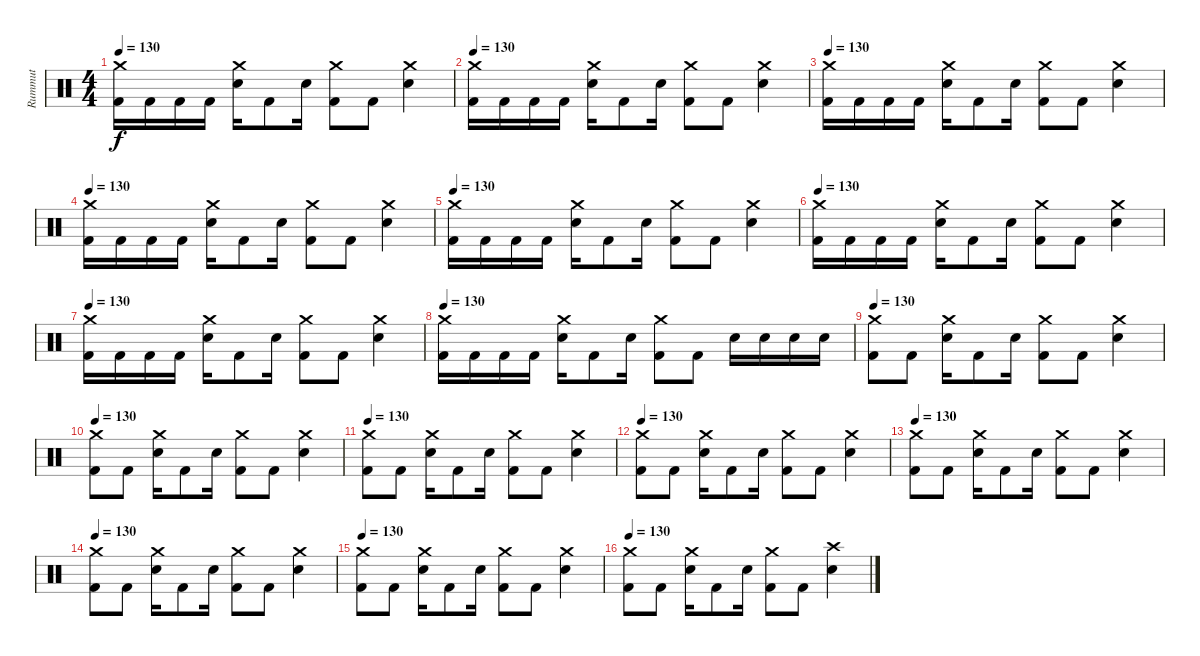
\track ("Rummut" "Rummut") {instrument percussion}
\staff {score}
\articulation defaults
\ts (4 4)
\tempo 130
\clef neutral
\ks c
("Crash medium (hit)" "Kick (hit) 2").16{dy f} "Kick (hit) 2".16 "Kick (hit) 2".16 "Kick (hit) 2".16 ("Crash medium (hit)" "Electric Snare (hit)").16 "Kick (hit) 2".8 "Electric Snare (hit)".16 ("Crash medium (hit)" "Kick (hit) 2").8 "Kick (hit) 2".8 ("Crash medium (hit)" "Electric Snare (hit)").4 |
\tempo 130
("Crash medium (hit)" "Kick (hit) 2").16 "Kick (hit) 2".16 "Kick (hit) 2".16 "Kick (hit) 2".16 ("Crash medium (hit)" "Electric Snare (hit)").16 "Kick (hit) 2".8 "Electric Snare (hit)".16 ("Crash medium (hit)" "Kick (hit) 2").8 "Kick (hit) 2".8 ("Crash medium (hit)" "Electric Snare (hit)").4 |
\tempo 130
("Crash medium (hit)" "Kick (hit) 2").16 "Kick (hit) 2".16 "Kick (hit) 2".16 "Kick (hit) 2".16 ("Crash medium (hit)" "Electric Snare (hit)").16 "Kick (hit) 2".8 "Electric Snare (hit)".16 ("Crash medium (hit)" "Kick (hit) 2").8 "Kick (hit) 2".8 ("Crash medium (hit)" "Electric Snare (hit)").4 |
\tempo 130
("Crash medium (hit)" "Kick (hit) 2").16 "Kick (hit) 2".16 "Kick (hit) 2".16 "Kick (hit) 2".16 ("Crash medium (hit)" "Electric Snare (hit)").16 "Kick (hit) 2".8 "Electric Snare (hit)".16 ("Crash medium (hit)" "Kick (hit) 2").8 "Kick (hit) 2".8 ("Crash medium (hit)" "Electric Snare (hit)").4 |
\tempo 130
("Crash medium (hit)" "Kick (hit) 2").16 "Kick (hit) 2".16 "Kick (hit) 2".16 "Kick (hit) 2".16 ("Crash medium (hit)" "Electric Snare (hit)").16 "Kick (hit) 2".8 "Electric Snare (hit)".16 ("Crash medium (hit)" "Kick (hit) 2").8 "Kick (hit) 2".8 ("Crash medium (hit)" "Electric Snare (hit)").4 |
\tempo 130
("Crash medium (hit)" "Kick (hit) 2").16 "Kick (hit) 2".16 "Kick (hit) 2".16 "Kick (hit) 2".16 ("Crash medium (hit)" "Electric Snare (hit)").16 "Kick (hit) 2".8 "Electric Snare (hit)".16 ("Crash medium (hit)" "Kick (hit) 2").8 "Kick (hit) 2".8 ("Crash medium (hit)" "Electric Snare (hit)").4 |
\tempo 130
("Crash medium (hit)" "Kick (hit) 2").16 "Kick (hit) 2".16 "Kick (hit) 2".16 "Kick (hit) 2".16 ("Crash medium (hit)" "Electric Snare (hit)").16 "Kick (hit) 2".8 "Electric Snare (hit)".16 ("Crash medium (hit)" "Kick (hit) 2").8 "Kick (hit) 2".8 ("Crash medium (hit)" "Electric Snare (hit)").4 |
\tempo 130
("Crash medium (hit)" "Kick (hit) 2").16 "Kick (hit) 2".16 "Kick (hit) 2".16 "Kick (hit) 2".16 ("Crash medium (hit)" "Electric Snare (hit)").16 "Kick (hit) 2".8 "Electric Snare (hit)".16 ("Crash medium (hit)" "Kick (hit) 2").8 "Kick (hit) 2".8 "Electric Snare (hit)".16 "Electric Snare (hit)".16 "Electric Snare (hit)".16 "Electric Snare (hit)".16 |
\tempo 130
("Crash medium (hit)" "Kick (hit) 2").8 "Kick (hit) 2".8 ("Crash medium (hit)" "Electric Snare (hit)").16 "Kick (hit) 2".8 "Electric Snare (hit)".16 ("Crash medium (hit)" "Kick (hit) 2").8 "Kick (hit) 2".8 ("Crash medium (hit)" "Electric Snare (hit)").4 |
\tempo 130
("Crash medium (hit)" "Kick (hit) 2").8 "Kick (hit) 2".8 ("Crash medium (hit)" "Electric Snare (hit)").16 "Kick (hit) 2".8 "Electric Snare (hit)".16 ("Crash medium (hit)" "Kick (hit) 2").8 "Kick (hit) 2".8 ("Crash medium (hit)" "Electric Snare (hit)").4 |
\tempo 130
("Crash medium (hit)" "Kick (hit) 2").8 "Kick (hit) 2".8 ("Crash medium (hit)" "Electric Snare (hit)").16 "Kick (hit) 2".8 "Electric Snare (hit)".16 ("Crash medium (hit)" "Kick (hit) 2").8 "Kick (hit) 2".8 ("Crash medium (hit)" "Electric Snare (hit)").4 |
\tempo 130
("Crash medium (hit)" "Kick (hit) 2").8 "Kick (hit) 2".8 ("Crash medium (hit)" "Electric Snare (hit)").16 "Kick (hit) 2".8 "Electric Snare (hit)".16 ("Crash medium (hit)" "Kick (hit) 2").8 "Kick (hit) 2".8 ("Crash medium (hit)" "Electric Snare (hit)").4 |
\tempo 130
("Crash medium (hit)" "Kick (hit) 2").8 "Kick (hit) 2".8 ("Crash medium (hit)" "Electric Snare (hit)").16 "Kick (hit) 2".8 "Electric Snare (hit)".16 ("Crash medium (hit)" "Kick (hit) 2").8 "Kick (hit) 2".8 ("Crash medium (hit)" "Electric Snare (hit)").4 |
\tempo 130
("Crash medium (hit)" "Kick (hit) 2").8 "Kick (hit) 2".8 ("Crash medium (hit)" "Electric Snare (hit)").16 "Kick (hit) 2".8 "Electric Snare (hit)".16 ("Crash medium (hit)" "Kick (hit) 2").8 "Kick (hit) 2".8 ("Crash medium (hit)" "Electric Snare (hit)").4 |
\tempo 130
("Crash medium (hit)" "Kick (hit) 2").8 "Kick (hit) 2".8 ("Crash medium (hit)" "Electric Snare (hit)").16 "Kick (hit) 2".8 "Electric Snare (hit)".16 ("Crash medium (hit)" "Kick (hit) 2").8 "Kick (hit) 2".8 ("Crash medium (hit)" "Electric Snare (hit)").4 |
\tempo 130
("Crash medium (hit)" "Kick (hit) 2").8 "Kick (hit) 2".8 ("Crash medium (hit)" "Electric Snare (hit)").16 "Kick (hit) 2".8 "Electric Snare (hit)".16 ("Crash medium (hit)" "Kick (hit) 2").8 "Kick (hit) 2".8 ("Crash high (hit)" "Electric Snare (hit)").4
